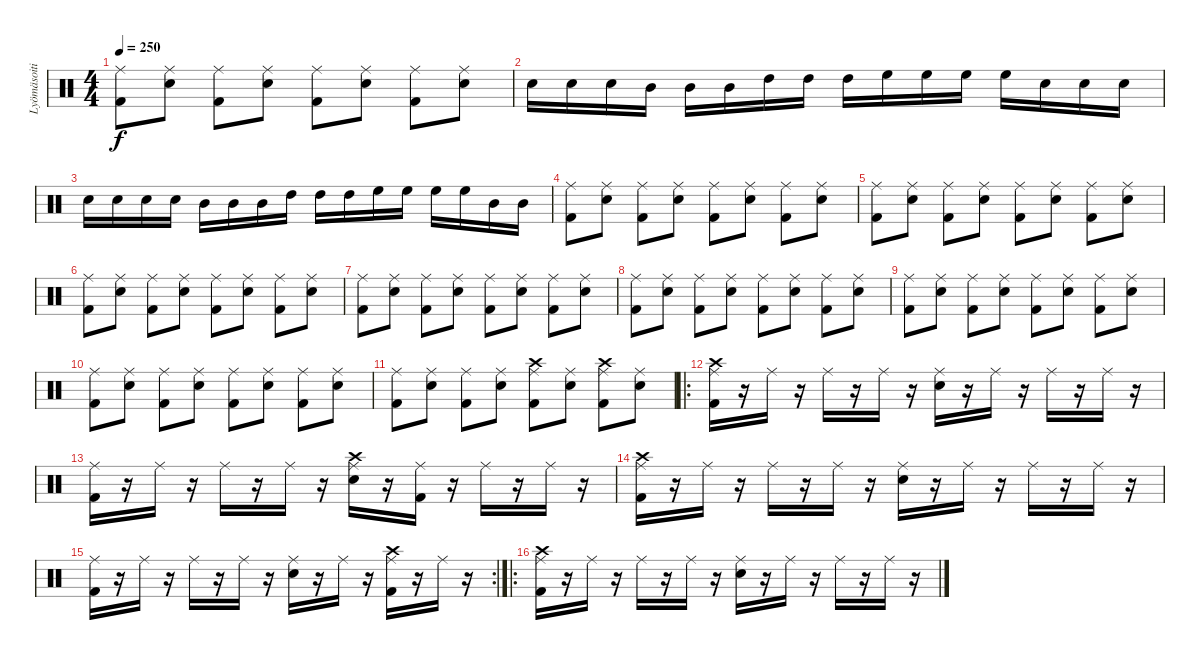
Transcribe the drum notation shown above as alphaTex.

\track ("Lyömäsoitin" "Lyömäsoiti") {instrument percussion}
\staff {score}
\articulation defaults
\ts (4 4)
\tempo 250
\clef neutral
\ks c
("Ride (middle)" "Kick (hit) 2").8{dy f} ("Ride (middle)" "Electric Snare (hit)").8 ("Ride (middle)" "Kick (hit) 2").8 ("Ride (middle)" "Electric Snare (hit)").8 ("Ride (middle)" "Kick (hit) 2").8 ("Ride (middle)" "Electric Snare (hit)").8 ("Ride (middle)" "Kick (hit) 2").8 ("Ride (middle)" "Electric Snare (hit)").8 |
"Electric Snare (hit)".16 "Electric Snare (hit)".16 "Electric Snare (hit)".16 "Mid Tom (hit)".16 "Mid Tom (hit)".16 "Mid Tom (hit)".16 "High Tom (hit)".16 "High Tom (hit)".16 "High Tom (hit)".16 "High Floor Tom (hit)".16 "High Floor Tom (hit)".16 "High Floor Tom (hit)".16 "High Floor Tom (hit)".16 "Electric Snare (hit)".16 "Electric Snare (hit)".16 "Electric Snare (hit)".16 |
"Electric Snare (hit)".16 "Electric Snare (hit)".16 "Electric Snare (hit)".16 "Electric Snare (hit)".16 "Mid Tom (hit)".16 "Mid Tom (hit)".16 "Mid Tom (hit)".16 "High Tom (hit)".16 "High Tom (hit)".16 "High Tom (hit)".16 "High Floor Tom (hit)".16 "High Floor Tom (hit)".16 "High Floor Tom (hit)".16 "High Floor Tom (hit)".16 "Mid Tom (hit)".16 "Mid Tom (hit)".16 |
("Ride (middle)" "Kick (hit) 2").8 ("Ride (middle)" "Electric Snare (hit)").8 ("Ride (middle)" "Kick (hit) 2").8 ("Ride (middle)" "Electric Snare (hit)").8 ("Ride (middle)" "Kick (hit) 2").8 ("Ride (middle)" "Electric Snare (hit)").8 ("Ride (middle)" "Kick (hit) 2").8 ("Ride (middle)" "Electric Snare (hit)").8 |
("Ride (middle)" "Kick (hit) 2").8 ("Ride (middle)" "Electric Snare (hit)").8 ("Ride (middle)" "Kick (hit) 2").8 ("Ride (middle)" "Electric Snare (hit)").8 ("Ride (middle)" "Kick (hit) 2").8 ("Ride (middle)" "Electric Snare (hit)").8 ("Ride (middle)" "Kick (hit) 2").8 ("Ride (middle)" "Electric Snare (hit)").8 |
("Ride (middle)" "Kick (hit) 2").8 ("Ride (middle)" "Electric Snare (hit)").8 ("Ride (middle)" "Kick (hit) 2").8 ("Ride (middle)" "Electric Snare (hit)").8 ("Ride (middle)" "Kick (hit) 2").8 ("Ride (middle)" "Electric Snare (hit)").8 ("Ride (middle)" "Kick (hit) 2").8 ("Ride (middle)" "Electric Snare (hit)").8 |
("Ride (middle)" "Kick (hit) 2").8 ("Ride (middle)" "Electric Snare (hit)").8 ("Ride (middle)" "Kick (hit) 2").8 ("Ride (middle)" "Electric Snare (hit)").8 ("Ride (middle)" "Kick (hit) 2").8 ("Ride (middle)" "Electric Snare (hit)").8 ("Ride (middle)" "Kick (hit) 2").8 ("Ride (middle)" "Electric Snare (hit)").8 |
("Ride (middle)" "Kick (hit) 2").8 ("Ride (middle)" "Electric Snare (hit)").8 ("Ride (middle)" "Kick (hit) 2").8 ("Ride (middle)" "Electric Snare (hit)").8 ("Ride (middle)" "Kick (hit) 2").8 ("Ride (middle)" "Electric Snare (hit)").8 ("Ride (middle)" "Kick (hit) 2").8 ("Ride (middle)" "Electric Snare (hit)").8 |
("Ride (middle)" "Kick (hit) 2").8 ("Ride (middle)" "Electric Snare (hit)").8 ("Ride (middle)" "Kick (hit) 2").8 ("Ride (middle)" "Electric Snare (hit)").8 ("Ride (middle)" "Kick (hit) 2").8 ("Ride (middle)" "Electric Snare (hit)").8 ("Ride (middle)" "Kick (hit) 2").8 ("Ride (middle)" "Electric Snare (hit)").8 |
("Ride (middle)" "Kick (hit) 2").8 ("Ride (middle)" "Electric Snare (hit)").8 ("Ride (middle)" "Kick (hit) 2").8 ("Ride (middle)" "Electric Snare (hit)").8 ("Ride (middle)" "Kick (hit) 2").8 ("Ride (middle)" "Electric Snare (hit)").8 ("Ride (middle)" "Kick (hit) 2").8 ("Ride (middle)" "Electric Snare (hit)").8 |
("Ride (middle)" "Kick (hit) 2").8 ("Ride (middle)" "Electric Snare (hit)").8 ("Ride (middle)" "Kick (hit) 2").8 ("Ride (middle)" "Electric Snare (hit)").8 ("Crash high (hit)" "Ride (middle)" "Kick (hit) 2").8 ("Ride (middle)" "Electric Snare (hit)").8 ("Crash high (hit)" "Ride (middle)" "Kick (hit) 2").8 ("Ride (middle)" "Electric Snare (hit)").8 |
\ro
("Crash high (hit)" "Ride (middle)" "Kick (hit) 2").16 r.16 "Ride (middle)".16 r.16 "Ride (middle)".16 r.16 "Ride (middle)".16 r.16 ("Ride (middle)" "Electric Snare (hit)").16 r.16 "Ride (middle)".16 r.16 "Ride (middle)".16 r.16 "Ride (middle)".16 r.16 |
("Ride (middle)" "Kick (hit) 2").16 r.16 "Ride (middle)".16 r.16 "Ride (middle)".16 r.16 "Ride (middle)".16 r.16 ("Crash high (hit)" "Ride (middle)" "Electric Snare (hit)").16 r.16 ("Ride (middle)" "Kick (hit) 2").16 r.16 "Ride (middle)".16 r.16 "Ride (middle)".16 r.16 |
("Crash high (hit)" "Ride (middle)" "Kick (hit) 2").16 r.16 "Ride (middle)".16 r.16 "Ride (middle)".16 r.16 "Ride (middle)".16 r.16 ("Ride (middle)" "Electric Snare (hit)").16 r.16 "Ride (middle)".16 r.16 "Ride (middle)".16 r.16 "Ride (middle)".16 r.16 |
\rc 2
("Ride (middle)" "Kick (hit) 2").16 r.16 "Ride (middle)".16 r.16 "Ride (middle)".16 r.16 "Ride (middle)".16 r.16 ("Ride (middle)" "Electric Snare (hit)").16 r.16 "Ride (middle)".16 r.16 ("Crash high (hit)" "Ride (middle)" "Kick (hit) 2").16 r.16 "Ride (middle)".16 r.16 |
\ro
("Crash high (hit)" "Ride (middle)" "Kick (hit) 2").16 r.16 "Ride (middle)".16 r.16 "Ride (middle)".16 r.16 "Ride (middle)".16 r.16 ("Ride (middle)" "Electric Snare (hit)").16 r.16 "Ride (middle)".16 r.16 "Ride (middle)".16 r.16 "Ride (middle)".16 r.16
